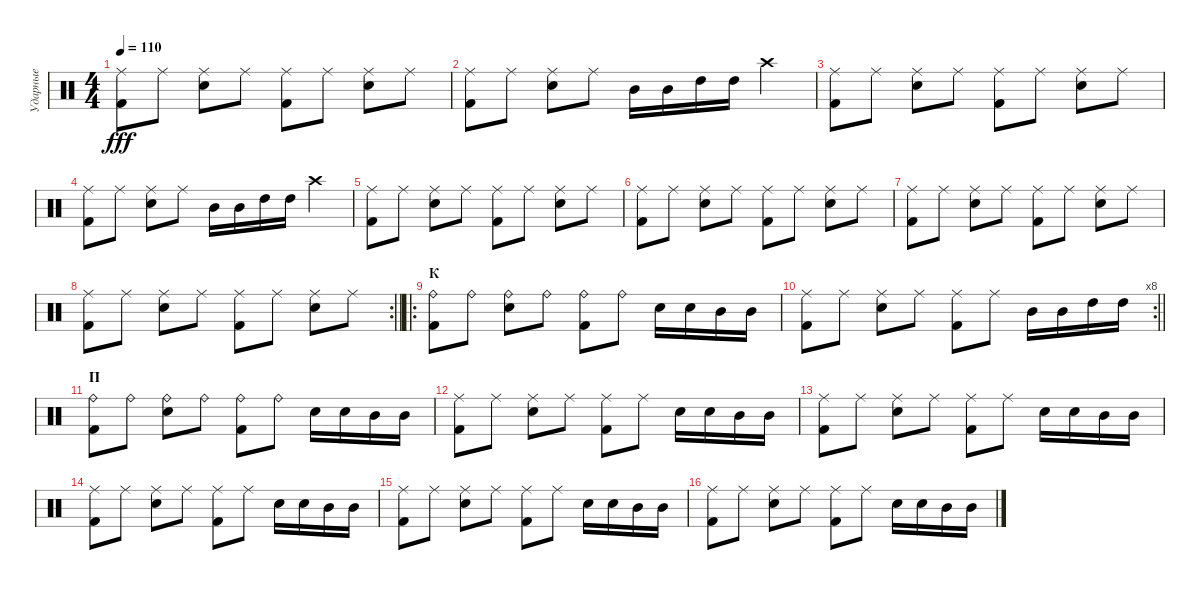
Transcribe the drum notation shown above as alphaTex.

\track ("Ударные" "Ударные") {instrument percussion}
\staff {score}
\articulation defaults
\ts (4 4)
\tempo 110
\clef neutral
\ks c
("Kick (hit) 2" "Ride (middle)").8{dy fff} "Ride (middle)".8 ("Electric Snare (hit)" "Ride (middle)").8 "Ride (middle)".8 ("Kick (hit) 2" "Ride (middle)").8 "Ride (middle)".8 ("Electric Snare (hit)" "Ride (middle)").8 "Ride (middle)".8 |
("Kick (hit) 2" "Ride (middle)").8 "Ride (middle)".8 ("Electric Snare (hit)" "Ride (middle)").8 "Ride (middle)".8 "Mid Tom (hit)".16 "Mid Tom (hit)".16 "High Tom (hit)".16 "High Tom (hit)".16 "Crash high (hit)".4 |
("Kick (hit) 2" "Ride (middle)").8 "Ride (middle)".8 ("Electric Snare (hit)" "Ride (middle)").8 "Ride (middle)".8 ("Kick (hit) 2" "Ride (middle)").8 "Ride (middle)".8 ("Electric Snare (hit)" "Ride (middle)").8 "Ride (middle)".8 |
("Kick (hit) 2" "Ride (middle)").8 "Ride (middle)".8 ("Electric Snare (hit)" "Ride (middle)").8 "Ride (middle)".8 "Mid Tom (hit)".16 "Mid Tom (hit)".16 "High Tom (hit)".16 "High Tom (hit)".16 "Crash high (hit)".4 |
("Kick (hit) 2" "Ride (middle)").8 "Ride (middle)".8 ("Electric Snare (hit)" "Ride (middle)").8 "Ride (middle)".8 ("Kick (hit) 2" "Ride (middle)").8 "Ride (middle)".8 ("Electric Snare (hit)" "Ride (middle)").8 "Ride (middle)".8 |
("Kick (hit) 2" "Ride (middle)").8 "Ride (middle)".8 ("Electric Snare (hit)" "Ride (middle)").8 "Ride (middle)".8 ("Kick (hit) 2" "Ride (middle)").8 "Ride (middle)".8 ("Electric Snare (hit)" "Ride (middle)").8 "Ride (middle)".8 |
("Kick (hit) 2" "Ride (middle)").8 "Ride (middle)".8 ("Electric Snare (hit)" "Ride (middle)").8 "Ride (middle)".8 ("Kick (hit) 2" "Ride (middle)").8 "Ride (middle)".8 ("Electric Snare (hit)" "Ride (middle)").8 "Ride (middle)".8 |
\rc 2
\barLineRight lightlight
("Kick (hit) 2" "Ride (middle)").8 "Ride (middle)".8 ("Electric Snare (hit)" "Ride (middle)").8 "Ride (middle)".8 ("Kick (hit) 2" "Ride (middle)").8 "Ride (middle)".8 ("Electric Snare (hit)" "Ride (middle)").8 "Ride (middle)".8 |
\ro
\section ("" "К")
("Kick (hit) 2" "Ride (bell)").8{volume 16} "Ride (bell)".8 ("Electric Snare (hit)" "Ride (bell)").8 "Ride (bell)".8 ("Kick (hit) 2" "Ride (bell)").8 "Ride (bell)".8 "Electric Snare (hit)".16 "Electric Snare (hit)".16 "Mid Tom (hit)".16 "Mid Tom (hit)".16 |
\rc 8
\barLineRight lightlight
("Kick (hit) 2" "Ride (middle)").8 "Ride (middle)".8 ("Electric Snare (hit)" "Ride (middle)").8 "Ride (middle)".8 ("Kick (hit) 2" "Ride (middle)").8 "Ride (middle)".8 "Mid Tom (hit)".16 "Mid Tom (hit)".16 "High Tom (hit)".16 "High Tom (hit)".16 |
\section ("" "П")
("Kick (hit) 2" "Ride (bell)").8 "Ride (bell)".8 ("Electric Snare (hit)" "Ride (bell)").8 "Ride (bell)".8 ("Kick (hit) 2" "Ride (bell)").8 "Ride (bell)".8 "Electric Snare (hit)".16 "Electric Snare (hit)".16 "Mid Tom (hit)".16 "Mid Tom (hit)".16 |
("Kick (hit) 2" "Ride (middle)").8 "Ride (middle)".8 ("Electric Snare (hit)" "Ride (middle)").8 "Ride (middle)".8 ("Kick (hit) 2" "Ride (middle)").8 "Ride (middle)".8 "Electric Snare (hit)".16 "Electric Snare (hit)".16 "Mid Tom (hit)".16 "Mid Tom (hit)".16 |
("Kick (hit) 2" "Ride (middle)").8 "Ride (middle)".8 ("Electric Snare (hit)" "Ride (middle)").8 "Ride (middle)".8 ("Kick (hit) 2" "Ride (middle)").8 "Ride (middle)".8 "Electric Snare (hit)".16 "Electric Snare (hit)".16 "Mid Tom (hit)".16 "Mid Tom (hit)".16 |
("Kick (hit) 2" "Ride (middle)").8 "Ride (middle)".8 ("Electric Snare (hit)" "Ride (middle)").8 "Ride (middle)".8 ("Kick (hit) 2" "Ride (middle)").8 "Ride (middle)".8 "Electric Snare (hit)".16 "Electric Snare (hit)".16 "Mid Tom (hit)".16 "Mid Tom (hit)".16 |
("Kick (hit) 2" "Ride (middle)").8 "Ride (middle)".8 ("Electric Snare (hit)" "Ride (middle)").8 "Ride (middle)".8 ("Kick (hit) 2" "Ride (middle)").8 "Ride (middle)".8 "Electric Snare (hit)".16 "Electric Snare (hit)".16 "Mid Tom (hit)".16 "Mid Tom (hit)".16 |
("Kick (hit) 2" "Ride (middle)").8 "Ride (middle)".8 ("Electric Snare (hit)" "Ride (middle)").8 "Ride (middle)".8 ("Kick (hit) 2" "Ride (middle)").8 "Ride (middle)".8 "Electric Snare (hit)".16 "Electric Snare (hit)".16 "Mid Tom (hit)".16 "Mid Tom (hit)".16
